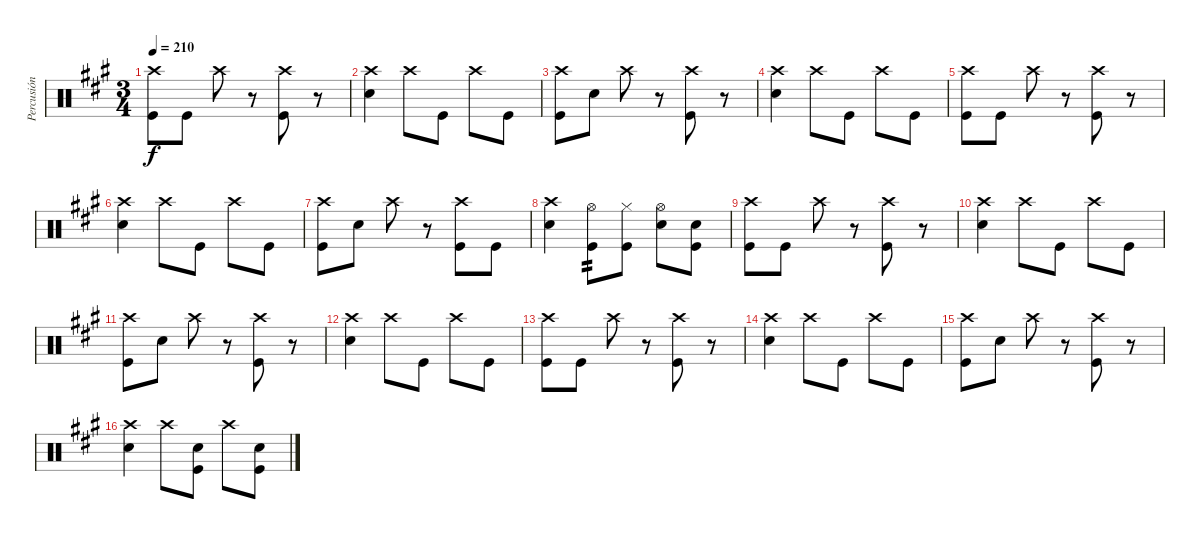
\track ("Percusión" "Percusión") {instrument percussion}
\staff {score}
\articulation defaults
\ts (3 4)
\tempo 210
\clef neutral
\ks a
("Crash high (hit)" "Kick (hit)").8{dy f} "Kick (hit)".8 "Crash high (hit)".8 r.8 ("Crash high (hit)" "Kick (hit)").8 r.8 |
("Crash high (hit)" "Electric Snare (hit)").4 "Crash high (hit)".8 "Kick (hit)".8 "Crash high (hit)".8 "Kick (hit)".8 |
("Crash high (hit)" "Kick (hit)").8 "Electric Snare (hit)".8 "Crash high (hit)".8 r.8 ("Crash high (hit)" "Kick (hit)").8 r.8 |
("Crash high (hit)" "Electric Snare (hit)").4 "Crash high (hit)".8 "Kick (hit)".8 "Crash high (hit)".8 "Kick (hit)".8 |
("Crash high (hit)" "Kick (hit)").8 "Kick (hit)".8 "Crash high (hit)".8 r.8 ("Crash high (hit)" "Kick (hit)").8 r.8 |
("Crash high (hit)" "Electric Snare (hit)").4 "Crash high (hit)".8 "Kick (hit)".8 "Crash high (hit)".8 "Kick (hit)".8 |
("Crash high (hit)" "Kick (hit)").8 "Electric Snare (hit)".8 "Crash high (hit)".8 r.8 ("Crash high (hit)" "Kick (hit)").8 "Kick (hit)".8 |
("Crash high (hit)" "Electric Snare (hit)").4 ("Hi-Hat (open)" "Kick (hit)").8{tp 2} ("Hi-Hat (closed)" "Kick (hit)").8 ("Hi-Hat (open)" "Electric Snare (hit)").8 ("Electric Snare (hit)" "Kick (hit)").8 |
("Crash high (hit)" "Kick (hit)").8 "Kick (hit)".8 "Crash high (hit)".8 r.8 ("Crash high (hit)" "Kick (hit)").8 r.8 |
("Crash high (hit)" "Electric Snare (hit)").4 "Crash high (hit)".8 "Kick (hit)".8 "Crash high (hit)".8 "Kick (hit)".8 |
("Crash high (hit)" "Kick (hit)").8 "Electric Snare (hit)".8 "Crash high (hit)".8 r.8 ("Crash high (hit)" "Kick (hit)").8 r.8 |
("Crash high (hit)" "Electric Snare (hit)").4 "Crash high (hit)".8 "Kick (hit)".8 "Crash high (hit)".8 "Kick (hit)".8 |
("Crash high (hit)" "Kick (hit)").8 "Kick (hit)".8 "Crash high (hit)".8 r.8 ("Crash high (hit)" "Kick (hit)").8 r.8 |
("Crash high (hit)" "Electric Snare (hit)").4 "Crash high (hit)".8 "Kick (hit)".8 "Crash high (hit)".8 "Kick (hit)".8 |
("Crash high (hit)" "Kick (hit)").8 "Electric Snare (hit)".8 "Crash high (hit)".8 r.8 ("Crash high (hit)" "Kick (hit)").8 r.8 |
("Crash high (hit)" "Electric Snare (hit)").4 "Crash high (hit)".8 ("Electric Snare (hit)" "Kick (hit)").8 "Crash high (hit)".8 ("Electric Snare (hit)" "Kick (hit)").8
